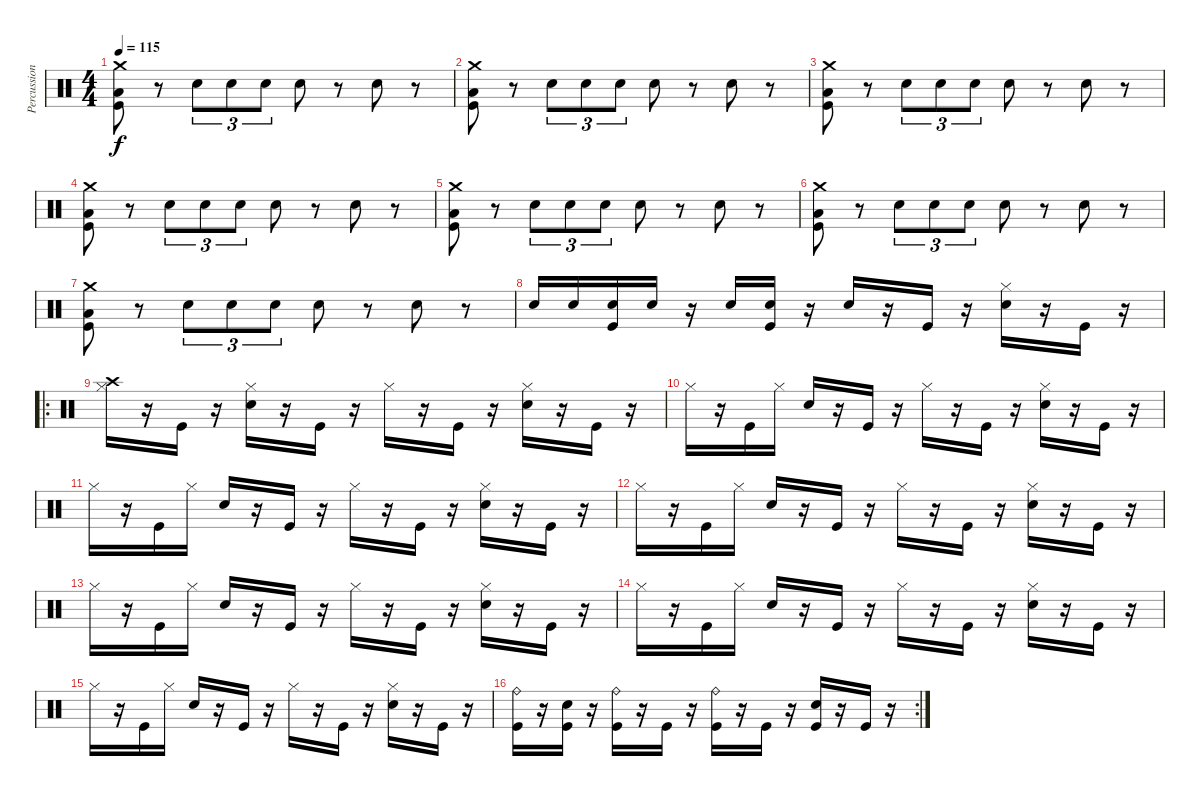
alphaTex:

\track ("Percussion" "Percussion") {instrument percussion}
\staff {score}
\articulation defaults
\ts (4 4)
\tempo 115
\clef neutral
\ks c
("Crash medium (hit)" "Kick (hit)" "Low Tom (hit)").8{dy f} r.8 "Snare (hit) 2".8{tu (3 2)} "Snare (hit) 2".8{tu (3 2)} "Snare (hit) 2".8{tu (3 2)} "Snare (hit) 2".8 r.8 "Snare (hit) 2".8 r.8 |
("Crash medium (hit)" "Kick (hit)" "Low Tom (hit)").8 r.8 "Snare (hit) 2".8{tu (3 2)} "Snare (hit) 2".8{tu (3 2)} "Snare (hit) 2".8{tu (3 2)} "Snare (hit) 2".8 r.8 "Snare (hit) 2".8 r.8 |
("Crash medium (hit)" "Kick (hit)" "Low Tom (hit)").8 r.8 "Snare (hit) 2".8{tu (3 2)} "Snare (hit) 2".8{tu (3 2)} "Snare (hit) 2".8{tu (3 2)} "Snare (hit) 2".8 r.8 "Snare (hit) 2".8 r.8 |
("Crash medium (hit)" "Kick (hit)" "Low Tom (hit)").8 r.8 "Snare (hit) 2".8{tu (3 2)} "Snare (hit) 2".8{tu (3 2)} "Snare (hit) 2".8{tu (3 2)} "Snare (hit) 2".8 r.8 "Snare (hit) 2".8 r.8 |
("Crash medium (hit)" "Kick (hit)" "Low Tom (hit)").8 r.8 "Snare (hit) 2".8{tu (3 2)} "Snare (hit) 2".8{tu (3 2)} "Snare (hit) 2".8{tu (3 2)} "Snare (hit) 2".8 r.8 "Snare (hit) 2".8 r.8 |
("Crash medium (hit)" "Kick (hit)" "Low Tom (hit)").8 r.8 "Snare (hit) 2".8{tu (3 2)} "Snare (hit) 2".8{tu (3 2)} "Snare (hit) 2".8{tu (3 2)} "Snare (hit) 2".8 r.8 "Snare (hit) 2".8 r.8 |
("Crash medium (hit)" "Kick (hit)" "Low Tom (hit)").8 r.8 "Snare (hit) 2".8{tu (3 2)} "Snare (hit) 2".8{tu (3 2)} "Snare (hit) 2".8{tu (3 2)} "Snare (hit) 2".8 r.8 "Snare (hit) 2".8 r.8 |
"Snare (hit) 2".16 "Snare (hit) 2".16 ("Snare (hit) 2" "Kick (hit)").16 "Snare (hit) 2".16 r.16 "Snare (hit) 2".16 ("Snare (hit) 2" "Kick (hit)").16 r.16 "Snare (hit) 2".16 r.16 "Kick (hit)".16 r.16 ("Snare (hit) 2" "Hi-Hat (closed)").16 r.16 "Kick (hit)".16 r.16 |
\ro
("Crash high (hit)" "Hi-Hat (closed)").16 r.16 "Kick (hit)".16 r.16 ("Snare (hit) 2" "Hi-Hat (closed)").16 r.16 "Kick (hit)".16 r.16 "Hi-Hat (closed)".16 r.16 "Kick (hit)".16 r.16 ("Snare (hit) 2" "Hi-Hat (closed)").16 r.16 "Kick (hit)".16 r.16 |
"Hi-Hat (closed)".16 r.16 "Kick (hit)".16 "Hi-Hat (closed)".16 "Snare (hit) 2".16 r.16 "Kick (hit)".16 r.16 "Hi-Hat (closed)".16 r.16 "Kick (hit)".16 r.16 ("Snare (hit) 2" "Hi-Hat (closed)").16 r.16 "Kick (hit)".16 r.16 |
"Hi-Hat (closed)".16 r.16 "Kick (hit)".16 "Hi-Hat (closed)".16 "Snare (hit) 2".16 r.16 "Kick (hit)".16 r.16 "Hi-Hat (closed)".16 r.16 "Kick (hit)".16 r.16 ("Snare (hit) 2" "Hi-Hat (closed)").16 r.16 "Kick (hit)".16 r.16 |
"Hi-Hat (closed)".16 r.16 "Kick (hit)".16 "Hi-Hat (closed)".16 "Snare (hit) 2".16 r.16 "Kick (hit)".16 r.16 "Hi-Hat (closed)".16 r.16 "Kick (hit)".16 r.16 ("Snare (hit) 2" "Hi-Hat (closed)").16 r.16 "Kick (hit)".16 r.16 |
"Hi-Hat (closed)".16 r.16 "Kick (hit)".16 "Hi-Hat (closed)".16 "Snare (hit) 2".16 r.16 "Kick (hit)".16 r.16 "Hi-Hat (closed)".16 r.16 "Kick (hit)".16 r.16 ("Snare (hit) 2" "Hi-Hat (closed)").16 r.16 "Kick (hit)".16 r.16 |
"Hi-Hat (closed)".16 r.16 "Kick (hit)".16 "Hi-Hat (closed)".16 "Snare (hit) 2".16 r.16 "Kick (hit)".16 r.16 "Hi-Hat (closed)".16 r.16 "Kick (hit)".16 r.16 ("Snare (hit) 2" "Hi-Hat (closed)").16 r.16 "Kick (hit)".16 r.16 |
"Hi-Hat (closed)".16 r.16 "Kick (hit)".16 "Hi-Hat (closed)".16 "Snare (hit) 2".16 r.16 "Kick (hit)".16 r.16 "Hi-Hat (closed)".16 r.16 "Kick (hit)".16 r.16 ("Snare (hit) 2" "Hi-Hat (closed)").16 r.16 "Kick (hit)".16 r.16 |
\rc 2
("Ride (bell)" "Kick (hit)").16 r.16 ("Snare (hit) 2" "Kick (hit)").16 r.16 ("Ride (bell)" "Kick (hit)").16 r.16 "Kick (hit)".16 r.16 ("Ride (bell)" "Kick (hit)").16 r.16 "Kick (hit)".16 r.16 ("Snare (hit) 2" "Kick (hit)").16 r.16 "Kick (hit)".16 r.16
